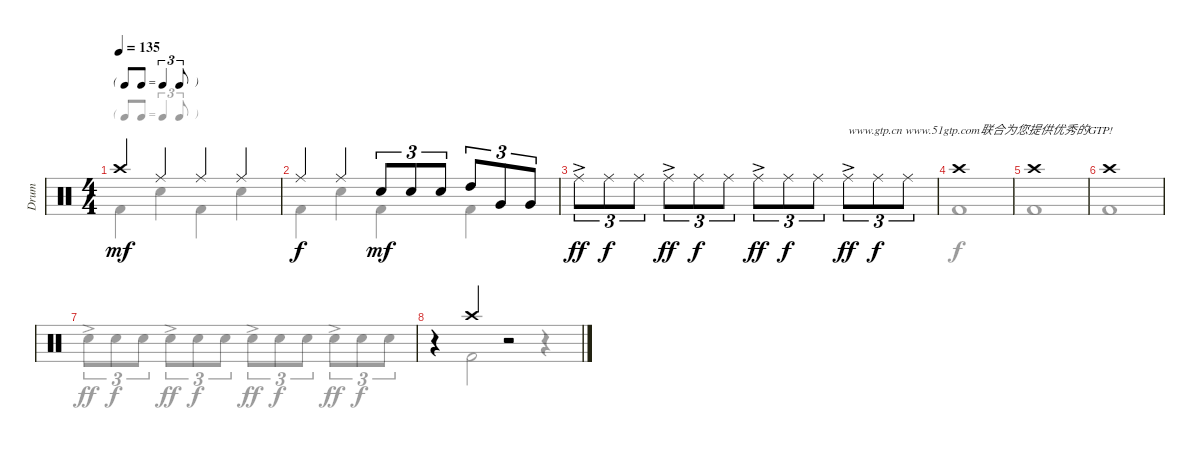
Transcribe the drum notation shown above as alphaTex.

\track ("Drum" "Drum") {instrument percussion}
\staff {score}
\articulation defaults
\voice
\ts (4 4)
\tf triplet8th
\tempo 135
\clef neutral
\ks c "Crash high (hit)".4{dy mf} "Ride (middle)".4 "Ride (middle)".4 "Ride (middle)".4
|
"Ride (middle)".4{dy f} "Ride (middle)".4 "Snare (hit) 2".8{tu (3 2) dy mf} "Snare (hit) 2".8{tu (3 2)} "Snare (hit) 2".8{tu (3 2)} "High Tom (hit)".8{tu (3 2)} "Very Low Tom (hit)".8{tu (3 2)} "Very Low Tom (hit)".8{tu (3 2)} |
"Ride (middle)"{ac}.8{tu (3 2) dy ff} "Ride (middle)".8{tu (3 2) dy f} "Ride (middle)".8{tu (3 2)} "Ride (middle)"{ac}.8{tu (3 2) dy ff} "Ride (middle)".8{tu (3 2) dy f} "Ride (middle)".8{tu (3 2)} "Ride (middle)"{ac}.8{tu (3 2) dy ff} "Ride (middle)".8{tu (3 2) dy f} "Ride (middle)".8{tu (3 2)} "Ride (middle)"{ac}.8{tu (3 2) txt "www.gtp.cn www.51gtp.com联合为您提供优秀的GTP!" dy ff} "Ride (middle)".8{tu (3 2) dy f} "Ride (middle)".8{tu (3 2)} |
"Crash high (hit)".1 |
"Crash high (hit)".1 |
"Crash high (hit)".1 |
|
r.4 "Crash high (hit)".4 r.2
\voice
\clef neutral
\ottava regular
\simile none
\ks c "Kick (hit) 2".4{dy mf} "Snare (hit) 2".4 "Kick (hit) 2".4 "Snare (hit) 2".4
|
"Kick (hit) 2".4{dy f} "Snare (hit) 2".4 "Kick (hit) 2".4{dy mf} "Kick (hit) 2".4 |
|
"Kick (hit) 2".1{dy f} |
"Kick (hit) 2".1 |
"Kick (hit) 2".1 |
"Snare (hit) 2"{ac}.8{tu (3 2) dy ff} "Snare (hit) 2".8{tu (3 2) dy f} "Snare (hit) 2".8{tu (3 2)} "Snare (hit) 2"{ac}.8{tu (3 2) dy ff} "Snare (hit) 2".8{tu (3 2) dy f} "Snare (hit) 2".8{tu (3 2)} "Snare (hit) 2"{ac}.8{tu (3 2) dy ff} "Snare (hit) 2".8{tu (3 2) dy f} "Snare (hit) 2".8{tu (3 2)} "Snare (hit) 2"{ac}.8{tu (3 2) dy ff} "Snare (hit) 2".8{tu (3 2) dy f} "Snare (hit) 2".8{tu (3 2)} |
r.4 "Kick (hit) 2".2 r.4
